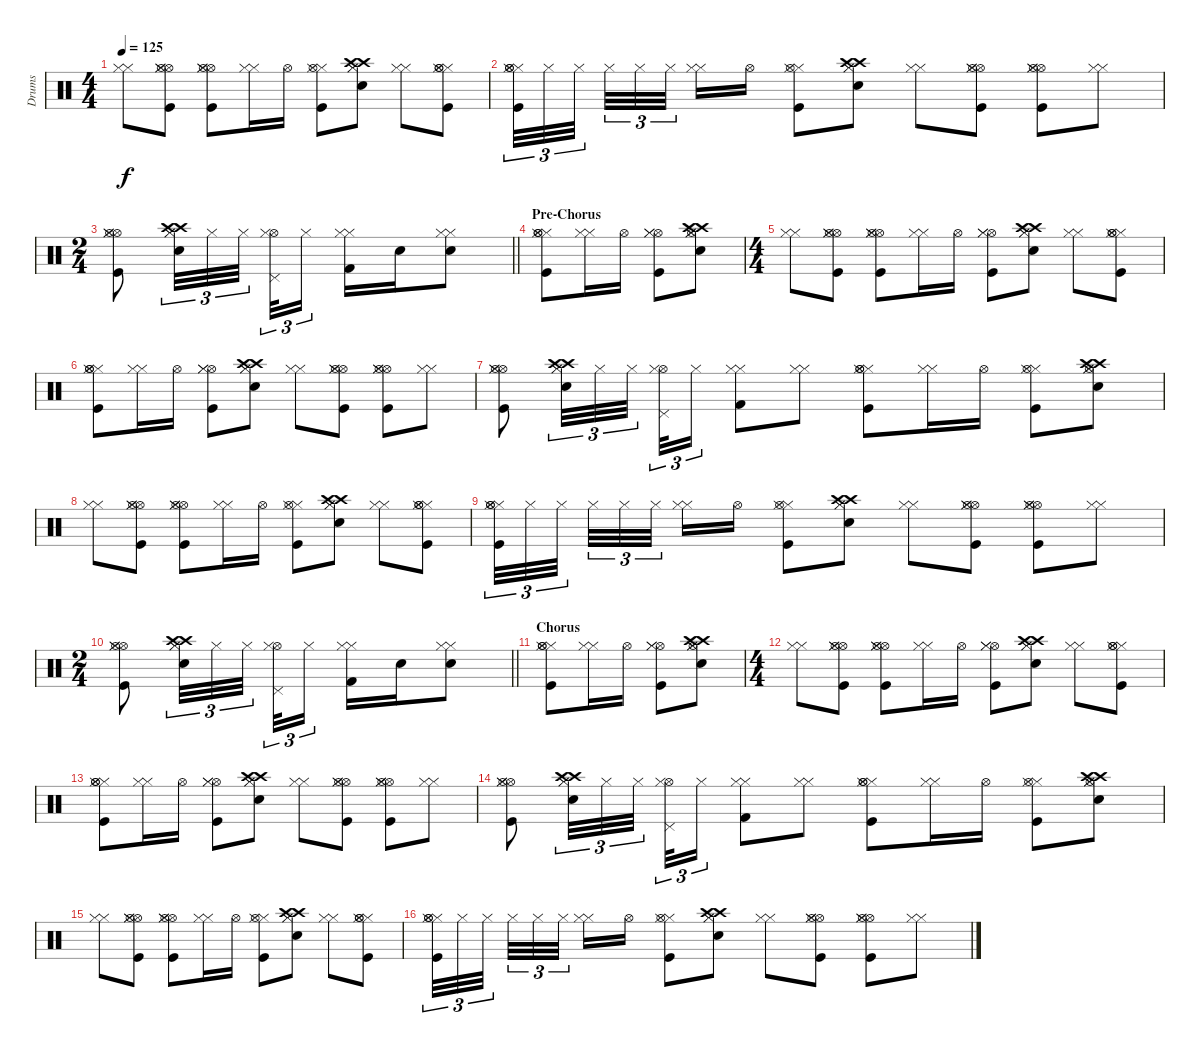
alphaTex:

\track ("Drums" "Drums") {instrument percussion}
\staff {score}
\articulation defaults
\ts (4 4)
\tempo 125
\clef neutral
\ks c
("Hi-Hat (closed)" "Hi-Hat (closed)").8{dy f} ("Hi-Hat (open)" "Hi-Hat (closed)" "Kick (hit)" "Hi-Hat (open)" "Hi-Hat (closed)").8 ("Hi-Hat (open)" "Hi-Hat (closed)" "Hi-Hat (open)" "Kick (hit)" "Hi-Hat (closed)").8 ("Hi-Hat (closed)" "Hi-Hat (closed)").16 "Hi-Hat (open)".16 ("Hi-Hat (closed)" "Hi-Hat (open)" "Kick (hit)" "Hi-Hat (closed)").8 ("Crash high (hit)" "Hi-Hat (closed)" "Crash high (hit)" "Electric Snare (hit)" "Hi-Hat (closed)").8 ("Hi-Hat (closed)" "Hi-Hat (closed)").8 ("Hi-Hat (closed)" "Hi-Hat (open)" "Kick (hit)" "Hi-Hat (closed)" "Hi-Hat (open)").8 |
("Hi-Hat (closed)" "Hi-Hat (open)" "Hi-Hat (closed)" "Hi-Hat (open)" "Kick (hit)").32{tu (3 2)} "Hi-Hat (closed)".32{tu (3 2)} "Hi-Hat (closed)".32{tu (3 2) beam splitsecondary} "Hi-Hat (closed)".32{tu (3 2)} "Hi-Hat (closed)".32{tu (3 2)} "Hi-Hat (closed)".32{tu (3 2) beam splitsecondary} ("Hi-Hat (closed)" "Hi-Hat (closed)").16 "Hi-Hat (open)".16 ("Hi-Hat (closed)" "Hi-Hat (open)" "Kick (hit)" "Hi-Hat (closed)").8 ("Crash high (hit)" "Hi-Hat (closed)" "Crash high (hit)" "Hi-Hat (closed)" "Electric Snare (hit)").8 ("Hi-Hat (closed)" "Hi-Hat (closed)").8 ("Hi-Hat (open)" "Hi-Hat (closed)" "Kick (hit)" "Hi-Hat (open)" "Hi-Hat (closed)").8 ("Hi-Hat (open)" "Hi-Hat (closed)" "Hi-Hat (open)" "Kick (hit)" "Hi-Hat (closed)").8 ("Hi-Hat (closed)" "Hi-Hat (closed)").8 |
\ts (2 4)
\barLineRight lightlight
("Hi-Hat (open)" "Hi-Hat (closed)" "Kick (hit)" "Hi-Hat (open)" "Hi-Hat (closed)").8 ("Crash high (hit)" "Hi-Hat (closed)" "Electric Snare (hit)" "Crash high (hit)" "Hi-Hat (closed)").32{tu (3 2)} "Hi-Hat (closed)".32{tu (3 2)} "Hi-Hat (closed)".32{tu (3 2) beam splitsecondary} ("Hi-Hat (open)" "Hi-Hat (closed)" "Pedal Hi-Hat (hit)").32{tu (3 2)} "Hi-Hat (closed)".16{tu (3 2)} ("Hi-Hat (closed)" "Kick (hit) 2" "Hi-Hat (closed)").16 "Electric Snare (hit)".16 ("Hi-Hat (closed)" "Electric Snare (hit)" "Hi-Hat (closed)").8 |
\section ("" "Pre-Chorus")
("Hi-Hat (closed)" "Hi-Hat (open)" "Kick (hit)" "Hi-Hat (closed)" "Hi-Hat (open)").8 ("Hi-Hat (closed)" "Hi-Hat (closed)").16 "Hi-Hat (open)".16 ("Hi-Hat (open)" "Kick (hit)" "Hi-Hat (closed)" "Hi-Hat (closed)").8 ("Electric Snare (hit)" "Crash high (hit)" "Hi-Hat (closed)" "Crash high (hit)" "Hi-Hat (closed)" "Hi-Hat (open)").8 |
\ts (4 4)
("Hi-Hat (closed)" "Hi-Hat (closed)").8 ("Kick (hit)" "Hi-Hat (open)" "Hi-Hat (closed)" "Hi-Hat (open)" "Hi-Hat (closed)").8 ("Hi-Hat (open)" "Kick (hit)" "Hi-Hat (closed)" "Hi-Hat (open)" "Hi-Hat (closed)").8 ("Hi-Hat (closed)" "Hi-Hat (closed)").16 "Hi-Hat (open)".16 ("Hi-Hat (open)" "Kick (hit)" "Hi-Hat (closed)" "Hi-Hat (closed)").8 ("Crash high (hit)" "Electric Snare (hit)" "Hi-Hat (closed)" "Crash high (hit)" "Hi-Hat (closed)").8 ("Hi-Hat (closed)" "Hi-Hat (closed)").8 ("Kick (hit)" "Hi-Hat (closed)" "Hi-Hat (open)" "Hi-Hat (closed)" "Hi-Hat (open)").8 |
("Hi-Hat (closed)" "Hi-Hat (open)" "Kick (hit)" "Hi-Hat (closed)" "Hi-Hat (open)").8 ("Hi-Hat (closed)" "Hi-Hat (closed)").16 "Hi-Hat (open)".16 ("Hi-Hat (open)" "Kick (hit)" "Hi-Hat (closed)" "Hi-Hat (closed)").8 ("Crash high (hit)" "Hi-Hat (closed)" "Electric Snare (hit)" "Crash high (hit)" "Hi-Hat (closed)").8 ("Hi-Hat (closed)" "Hi-Hat (closed)").8 ("Kick (hit)" "Hi-Hat (open)" "Hi-Hat (closed)" "Hi-Hat (open)" "Hi-Hat (closed)").8 ("Hi-Hat (open)" "Kick (hit)" "Hi-Hat (closed)" "Hi-Hat (open)" "Hi-Hat (closed)").8 ("Hi-Hat (closed)" "Hi-Hat (closed)").8 |
("Kick (hit)" "Hi-Hat (open)" "Hi-Hat (closed)" "Hi-Hat (open)" "Hi-Hat (closed)").8 ("Electric Snare (hit)" "Crash high (hit)" "Hi-Hat (closed)" "Crash high (hit)" "Hi-Hat (closed)").32{tu (3 2)} "Hi-Hat (closed)".32{tu (3 2)} "Hi-Hat (closed)".32{tu (3 2) beam splitsecondary} ("Hi-Hat (open)" "Hi-Hat (closed)" "Pedal Hi-Hat (hit)").32{tu (3 2)} "Hi-Hat (closed)".16{tu (3 2)} ("Kick (hit) 2" "Hi-Hat (closed)" "Hi-Hat (closed)").8 ("Hi-Hat (closed)" "Hi-Hat (closed)").8 ("Hi-Hat (closed)" "Hi-Hat (open)" "Hi-Hat (closed)" "Hi-Hat (open)" "Kick (hit)").8 ("Hi-Hat (closed)" "Hi-Hat (closed)").16 "Hi-Hat (open)".16 ("Hi-Hat (closed)" "Hi-Hat (open)" "Kick (hit)" "Hi-Hat (closed)").8 ("Crash high (hit)" "Hi-Hat (closed)" "Hi-Hat (open)" "Electric Snare (hit)" "Crash high (hit)" "Hi-Hat (closed)").8 |
("Hi-Hat (closed)" "Hi-Hat (closed)").8 ("Hi-Hat (open)" "Hi-Hat (closed)" "Kick (hit)" "Hi-Hat (open)" "Hi-Hat (closed)").8 ("Hi-Hat (open)" "Hi-Hat (closed)" "Hi-Hat (open)" "Kick (hit)" "Hi-Hat (closed)").8 ("Hi-Hat (closed)" "Hi-Hat (closed)").16 "Hi-Hat (open)".16 ("Hi-Hat (closed)" "Hi-Hat (open)" "Kick (hit)" "Hi-Hat (closed)").8 ("Crash high (hit)" "Hi-Hat (closed)" "Crash high (hit)" "Electric Snare (hit)" "Hi-Hat (closed)").8 ("Hi-Hat (closed)" "Hi-Hat (closed)").8 ("Hi-Hat (closed)" "Hi-Hat (open)" "Kick (hit)" "Hi-Hat (closed)" "Hi-Hat (open)").8 |
("Hi-Hat (closed)" "Hi-Hat (open)" "Hi-Hat (closed)" "Hi-Hat (open)" "Kick (hit)").32{tu (3 2)} "Hi-Hat (closed)".32{tu (3 2)} "Hi-Hat (closed)".32{tu (3 2) beam splitsecondary} "Hi-Hat (closed)".32{tu (3 2)} "Hi-Hat (closed)".32{tu (3 2)} "Hi-Hat (closed)".32{tu (3 2) beam splitsecondary} ("Hi-Hat (closed)" "Hi-Hat (closed)").16 "Hi-Hat (open)".16 ("Hi-Hat (closed)" "Hi-Hat (open)" "Kick (hit)" "Hi-Hat (closed)").8 ("Crash high (hit)" "Hi-Hat (closed)" "Crash high (hit)" "Hi-Hat (closed)" "Electric Snare (hit)").8 ("Hi-Hat (closed)" "Hi-Hat (closed)").8 ("Hi-Hat (open)" "Hi-Hat (closed)" "Kick (hit)" "Hi-Hat (open)" "Hi-Hat (closed)").8 ("Hi-Hat (open)" "Hi-Hat (closed)" "Hi-Hat (open)" "Kick (hit)" "Hi-Hat (closed)").8 ("Hi-Hat (closed)" "Hi-Hat (closed)").8 |
\ts (2 4)
\barLineRight lightlight
("Hi-Hat (open)" "Hi-Hat (closed)" "Kick (hit)" "Hi-Hat (open)" "Hi-Hat (closed)").8 ("Crash high (hit)" "Hi-Hat (closed)" "Electric Snare (hit)" "Crash high (hit)" "Hi-Hat (closed)").32{tu (3 2)} "Hi-Hat (closed)".32{tu (3 2)} "Hi-Hat (closed)".32{tu (3 2) beam splitsecondary} ("Hi-Hat (open)" "Hi-Hat (closed)" "Pedal Hi-Hat (hit)").32{tu (3 2)} "Hi-Hat (closed)".16{tu (3 2)} ("Hi-Hat (closed)" "Kick (hit) 2" "Hi-Hat (closed)").16 "Electric Snare (hit)".16 ("Hi-Hat (closed)" "Electric Snare (hit)" "Hi-Hat (closed)").8 |
\section ("" "Chorus")
("Hi-Hat (closed)" "Hi-Hat (open)" "Kick (hit)" "Hi-Hat (closed)" "Hi-Hat (open)").8 ("Hi-Hat (closed)" "Hi-Hat (closed)").16 "Hi-Hat (open)".16 ("Hi-Hat (open)" "Kick (hit)" "Hi-Hat (closed)" "Hi-Hat (closed)").8 ("Electric Snare (hit)" "Crash high (hit)" "Hi-Hat (closed)" "Crash high (hit)" "Hi-Hat (closed)" "Hi-Hat (open)").8 |
\ts (4 4)
("Hi-Hat (closed)" "Hi-Hat (closed)").8 ("Kick (hit)" "Hi-Hat (open)" "Hi-Hat (closed)" "Hi-Hat (open)" "Hi-Hat (closed)").8 ("Hi-Hat (open)" "Kick (hit)" "Hi-Hat (closed)" "Hi-Hat (open)" "Hi-Hat (closed)").8 ("Hi-Hat (closed)" "Hi-Hat (closed)").16 "Hi-Hat (open)".16 ("Hi-Hat (open)" "Kick (hit)" "Hi-Hat (closed)" "Hi-Hat (closed)").8 ("Crash high (hit)" "Electric Snare (hit)" "Hi-Hat (closed)" "Crash high (hit)" "Hi-Hat (closed)").8 ("Hi-Hat (closed)" "Hi-Hat (closed)").8 ("Kick (hit)" "Hi-Hat (closed)" "Hi-Hat (open)" "Hi-Hat (closed)" "Hi-Hat (open)").8 |
("Hi-Hat (closed)" "Hi-Hat (open)" "Kick (hit)" "Hi-Hat (closed)" "Hi-Hat (open)").8 ("Hi-Hat (closed)" "Hi-Hat (closed)").16 "Hi-Hat (open)".16 ("Hi-Hat (open)" "Kick (hit)" "Hi-Hat (closed)" "Hi-Hat (closed)").8 ("Crash high (hit)" "Hi-Hat (closed)" "Electric Snare (hit)" "Crash high (hit)" "Hi-Hat (closed)").8 ("Hi-Hat (closed)" "Hi-Hat (closed)").8 ("Kick (hit)" "Hi-Hat (open)" "Hi-Hat (closed)" "Hi-Hat (open)" "Hi-Hat (closed)").8 ("Hi-Hat (open)" "Kick (hit)" "Hi-Hat (closed)" "Hi-Hat (open)" "Hi-Hat (closed)").8 ("Hi-Hat (closed)" "Hi-Hat (closed)").8 |
("Kick (hit)" "Hi-Hat (open)" "Hi-Hat (closed)" "Hi-Hat (open)" "Hi-Hat (closed)").8 ("Electric Snare (hit)" "Crash high (hit)" "Hi-Hat (closed)" "Crash high (hit)" "Hi-Hat (closed)").32{tu (3 2)} "Hi-Hat (closed)".32{tu (3 2)} "Hi-Hat (closed)".32{tu (3 2) beam splitsecondary} ("Hi-Hat (open)" "Hi-Hat (closed)" "Pedal Hi-Hat (hit)").32{tu (3 2)} "Hi-Hat (closed)".16{tu (3 2)} ("Kick (hit) 2" "Hi-Hat (closed)" "Hi-Hat (closed)").8 ("Hi-Hat (closed)" "Hi-Hat (closed)").8 ("Hi-Hat (closed)" "Hi-Hat (open)" "Hi-Hat (closed)" "Hi-Hat (open)" "Kick (hit)").8 ("Hi-Hat (closed)" "Hi-Hat (closed)").16 "Hi-Hat (open)".16 ("Hi-Hat (closed)" "Hi-Hat (open)" "Kick (hit)" "Hi-Hat (closed)").8 ("Crash high (hit)" "Hi-Hat (closed)" "Hi-Hat (open)" "Electric Snare (hit)" "Crash high (hit)" "Hi-Hat (closed)").8 |
("Hi-Hat (closed)" "Hi-Hat (closed)").8 ("Hi-Hat (open)" "Hi-Hat (closed)" "Kick (hit)" "Hi-Hat (open)" "Hi-Hat (closed)").8 ("Hi-Hat (open)" "Hi-Hat (closed)" "Hi-Hat (open)" "Kick (hit)" "Hi-Hat (closed)").8 ("Hi-Hat (closed)" "Hi-Hat (closed)").16 "Hi-Hat (open)".16 ("Hi-Hat (closed)" "Hi-Hat (open)" "Kick (hit)" "Hi-Hat (closed)").8 ("Crash high (hit)" "Hi-Hat (closed)" "Crash high (hit)" "Electric Snare (hit)" "Hi-Hat (closed)").8 ("Hi-Hat (closed)" "Hi-Hat (closed)").8 ("Hi-Hat (closed)" "Hi-Hat (open)" "Kick (hit)" "Hi-Hat (closed)" "Hi-Hat (open)").8 |
("Hi-Hat (closed)" "Hi-Hat (open)" "Hi-Hat (closed)" "Hi-Hat (open)" "Kick (hit)").32{tu (3 2)} "Hi-Hat (closed)".32{tu (3 2)} "Hi-Hat (closed)".32{tu (3 2) beam splitsecondary} "Hi-Hat (closed)".32{tu (3 2)} "Hi-Hat (closed)".32{tu (3 2)} "Hi-Hat (closed)".32{tu (3 2) beam splitsecondary} ("Hi-Hat (closed)" "Hi-Hat (closed)").16 "Hi-Hat (open)".16 ("Hi-Hat (closed)" "Hi-Hat (open)" "Kick (hit)" "Hi-Hat (closed)").8 ("Crash high (hit)" "Hi-Hat (closed)" "Crash high (hit)" "Hi-Hat (closed)" "Electric Snare (hit)").8 ("Hi-Hat (closed)" "Hi-Hat (closed)").8 ("Hi-Hat (open)" "Hi-Hat (closed)" "Kick (hit)" "Hi-Hat (open)" "Hi-Hat (closed)").8 ("Hi-Hat (open)" "Hi-Hat (closed)" "Hi-Hat (open)" "Kick (hit)" "Hi-Hat (closed)").8 ("Hi-Hat (closed)" "Hi-Hat (closed)").8
